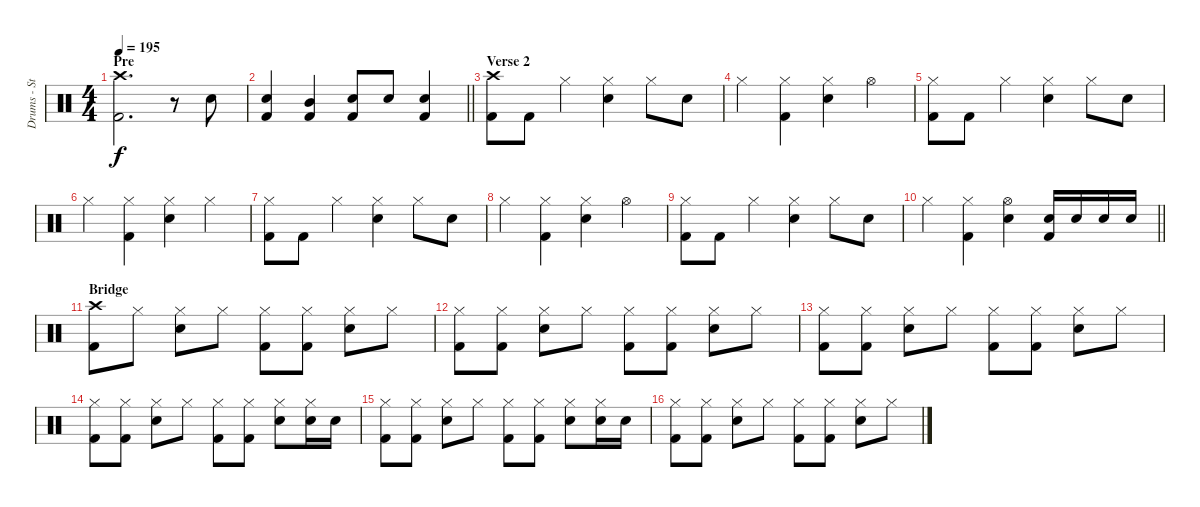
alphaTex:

\track ("Drums - Steve" "Drums - St") {instrument percussion}
\staff {score}
\articulation defaults
\ts (4 4)
\section ("" "Pre")
\tempo 195
\clef neutral
\ks c
("Crash high (hit)" "Kick (hit) 2").2{d dy f} r.8 "Snare (hit) 2".8 |
\barLineRight lightlight
("Snare (hit) 2" "Kick (hit) 2").4 ("Mid Tom (hit)" "Kick (hit) 2").4 ("Snare (hit) 2" "Kick (hit) 2").8 "Snare (hit) 2".8 ("Snare (hit) 2" "Kick (hit) 2").4 |
\section ("" "Verse 2")
("Crash high (hit)" "Kick (hit) 2").8 "Kick (hit) 2".8 "Hi-Hat (closed)".4 ("Hi-Hat (closed)" "Snare (hit) 2").4 "Hi-Hat (closed)".8 "Snare (hit) 2".8 |
"Hi-Hat (closed)".4 ("Hi-Hat (closed)" "Kick (hit) 2").4 ("Hi-Hat (closed)" "Snare (hit) 2").4 "Hi-Hat (open)".4 |
("Hi-Hat (closed)" "Kick (hit) 2").8 "Kick (hit) 2".8 "Hi-Hat (closed)".4 ("Hi-Hat (closed)" "Snare (hit) 2").4 "Hi-Hat (closed)".8 "Snare (hit) 2".8 |
"Hi-Hat (closed)".4 ("Hi-Hat (closed)" "Kick (hit) 2").4 ("Hi-Hat (closed)" "Snare (hit) 2").4 "Hi-Hat (closed)".4 |
("Hi-Hat (closed)" "Kick (hit) 2").8 "Kick (hit) 2".8 "Hi-Hat (closed)".4 ("Hi-Hat (closed)" "Snare (hit) 2").4 "Hi-Hat (closed)".8 "Snare (hit) 2".8 |
"Hi-Hat (closed)".4 ("Hi-Hat (closed)" "Kick (hit) 2").4 ("Hi-Hat (closed)" "Snare (hit) 2").4 "Hi-Hat (open)".4 |
("Hi-Hat (closed)" "Kick (hit) 2").8 "Kick (hit) 2".8 "Hi-Hat (closed)".4 ("Hi-Hat (closed)" "Snare (hit) 2").4 "Hi-Hat (closed)".8 "Snare (hit) 2".8 |
\barLineRight lightlight "Hi-Hat (closed)".4
("Hi-Hat (closed)" "Kick (hit) 2").4 ("Hi-Hat (open)" "Snare (hit) 2").4 ("Snare (hit) 2" "Kick (hit) 2").16 "Snare (hit) 2".16 "Snare (hit) 2".16 "Snare (hit) 2".16 |
\section ("" "Bridge")
("Crash high (hit)" "Kick (hit) 2").8 "Hi-Hat (closed)".8 ("Hi-Hat (closed)" "Snare (hit) 2").8 "Hi-Hat (closed)".8 ("Hi-Hat (closed)" "Kick (hit) 2").8 ("Hi-Hat (closed)" "Kick (hit) 2").8 ("Hi-Hat (closed)" "Snare (hit) 2").8 "Hi-Hat (closed)".8 |
("Hi-Hat (closed)" "Kick (hit) 2").8 ("Hi-Hat (closed)" "Kick (hit) 2").8 ("Hi-Hat (closed)" "Snare (hit) 2").8 "Hi-Hat (closed)".8 ("Hi-Hat (closed)" "Kick (hit) 2").8 ("Hi-Hat (closed)" "Kick (hit) 2").8 ("Hi-Hat (closed)" "Snare (hit) 2").8 "Hi-Hat (closed)".8 |
("Hi-Hat (closed)" "Kick (hit) 2").8 ("Hi-Hat (closed)" "Kick (hit) 2").8 ("Hi-Hat (closed)" "Snare (hit) 2").8 "Hi-Hat (closed)".8 ("Hi-Hat (closed)" "Kick (hit) 2").8 ("Hi-Hat (closed)" "Kick (hit) 2").8 ("Hi-Hat (closed)" "Snare (hit) 2").8 "Hi-Hat (closed)".8 |
("Hi-Hat (closed)" "Kick (hit) 2").8 ("Hi-Hat (closed)" "Kick (hit) 2").8 ("Hi-Hat (closed)" "Snare (hit) 2").8 "Hi-Hat (closed)".8 ("Hi-Hat (closed)" "Kick (hit) 2").8 ("Hi-Hat (closed)" "Kick (hit) 2").8 ("Hi-Hat (closed)" "Snare (hit) 2").8 ("Hi-Hat (closed)" "Snare (hit) 2").16 "Snare (hit) 2".16 |
("Hi-Hat (closed)" "Kick (hit) 2").8 ("Hi-Hat (closed)" "Kick (hit) 2").8 ("Hi-Hat (closed)" "Snare (hit) 2").8 "Hi-Hat (closed)".8 ("Hi-Hat (closed)" "Kick (hit) 2").8 ("Hi-Hat (closed)" "Kick (hit) 2").8 ("Hi-Hat (closed)" "Snare (hit) 2").8 ("Hi-Hat (closed)" "Snare (hit) 2").16 "Snare (hit) 2".16 |
("Hi-Hat (closed)" "Kick (hit) 2").8 ("Hi-Hat (closed)" "Kick (hit) 2").8 ("Hi-Hat (closed)" "Snare (hit) 2").8 "Hi-Hat (closed)".8 ("Hi-Hat (closed)" "Kick (hit) 2").8 ("Hi-Hat (closed)" "Kick (hit) 2").8 ("Hi-Hat (closed)" "Snare (hit) 2").8 "Hi-Hat (closed)".8
